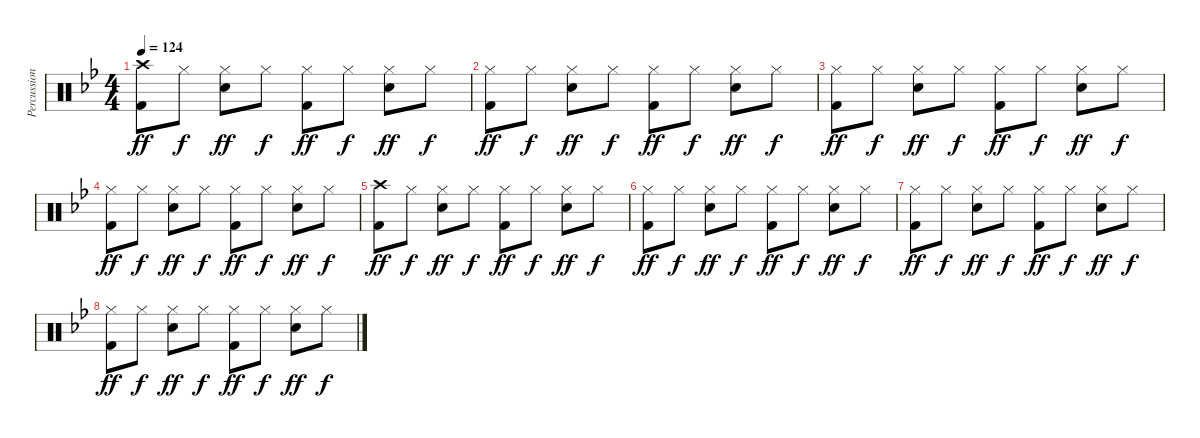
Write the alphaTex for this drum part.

\track ("Percussion" "Percussion") {instrument percussion}
\staff {score}
\articulation defaults
\ts (4 4)
\tempo 124
\clef neutral
\ks gminor
("Crash high (hit)" "Kick (hit) 2").8{dy ff} "Hi-Hat (closed)".8{dy f} ("Hi-Hat (closed)" "Electric Snare (hit)").8{dy ff} "Hi-Hat (closed)".8{dy f} ("Hi-Hat (closed)" "Kick (hit) 2").8{dy ff} "Hi-Hat (closed)".8{dy f} ("Hi-Hat (closed)" "Electric Snare (hit)").8{dy ff} "Hi-Hat (closed)".8{dy f} |
("Hi-Hat (closed)" "Kick (hit) 2").8{dy ff} "Hi-Hat (closed)".8{dy f} ("Hi-Hat (closed)" "Electric Snare (hit)").8{dy ff} "Hi-Hat (closed)".8{dy f} ("Hi-Hat (closed)" "Kick (hit) 2").8{dy ff} "Hi-Hat (closed)".8{dy f} ("Hi-Hat (closed)" "Electric Snare (hit)").8{dy ff} "Hi-Hat (closed)".8{dy f} |
("Hi-Hat (closed)" "Kick (hit) 2").8{dy ff} "Hi-Hat (closed)".8{dy f} ("Hi-Hat (closed)" "Electric Snare (hit)").8{dy ff} "Hi-Hat (closed)".8{dy f} ("Hi-Hat (closed)" "Kick (hit) 2").8{dy ff} "Hi-Hat (closed)".8{dy f} ("Hi-Hat (closed)" "Electric Snare (hit)").8{dy ff} "Hi-Hat (closed)".8{dy f} |
("Hi-Hat (closed)" "Kick (hit) 2").8{dy ff} "Hi-Hat (closed)".8{dy f} ("Hi-Hat (closed)" "Electric Snare (hit)").8{dy ff} "Hi-Hat (closed)".8{dy f} ("Hi-Hat (closed)" "Kick (hit) 2").8{dy ff} "Hi-Hat (closed)".8{dy f} ("Hi-Hat (closed)" "Electric Snare (hit)").8{dy ff} "Hi-Hat (closed)".8{dy f} |
("Crash high (hit)" "Kick (hit) 2").8{dy ff} "Hi-Hat (closed)".8{dy f} ("Hi-Hat (closed)" "Electric Snare (hit)").8{dy ff} "Hi-Hat (closed)".8{dy f} ("Hi-Hat (closed)" "Kick (hit) 2").8{dy ff} "Hi-Hat (closed)".8{dy f} ("Hi-Hat (closed)" "Electric Snare (hit)").8{dy ff} "Hi-Hat (closed)".8{dy f} |
("Hi-Hat (closed)" "Kick (hit) 2").8{dy ff} "Hi-Hat (closed)".8{dy f} ("Hi-Hat (closed)" "Electric Snare (hit)").8{dy ff} "Hi-Hat (closed)".8{dy f} ("Hi-Hat (closed)" "Kick (hit) 2").8{dy ff} "Hi-Hat (closed)".8{dy f} ("Hi-Hat (closed)" "Electric Snare (hit)").8{dy ff} "Hi-Hat (closed)".8{dy f} |
("Hi-Hat (closed)" "Kick (hit) 2").8{dy ff} "Hi-Hat (closed)".8{dy f} ("Hi-Hat (closed)" "Electric Snare (hit)").8{dy ff} "Hi-Hat (closed)".8{dy f} ("Hi-Hat (closed)" "Kick (hit) 2").8{dy ff} "Hi-Hat (closed)".8{dy f} ("Hi-Hat (closed)" "Electric Snare (hit)").8{dy ff} "Hi-Hat (closed)".8{dy f} |
("Hi-Hat (closed)" "Kick (hit) 2").8{dy ff} "Hi-Hat (closed)".8{dy f} ("Hi-Hat (closed)" "Electric Snare (hit)").8{dy ff} "Hi-Hat (closed)".8{dy f} ("Hi-Hat (closed)" "Kick (hit) 2").8{dy ff} "Hi-Hat (closed)".8{dy f} ("Hi-Hat (closed)" "Electric Snare (hit)").8{dy ff} "Hi-Hat (closed)".8{dy f}
